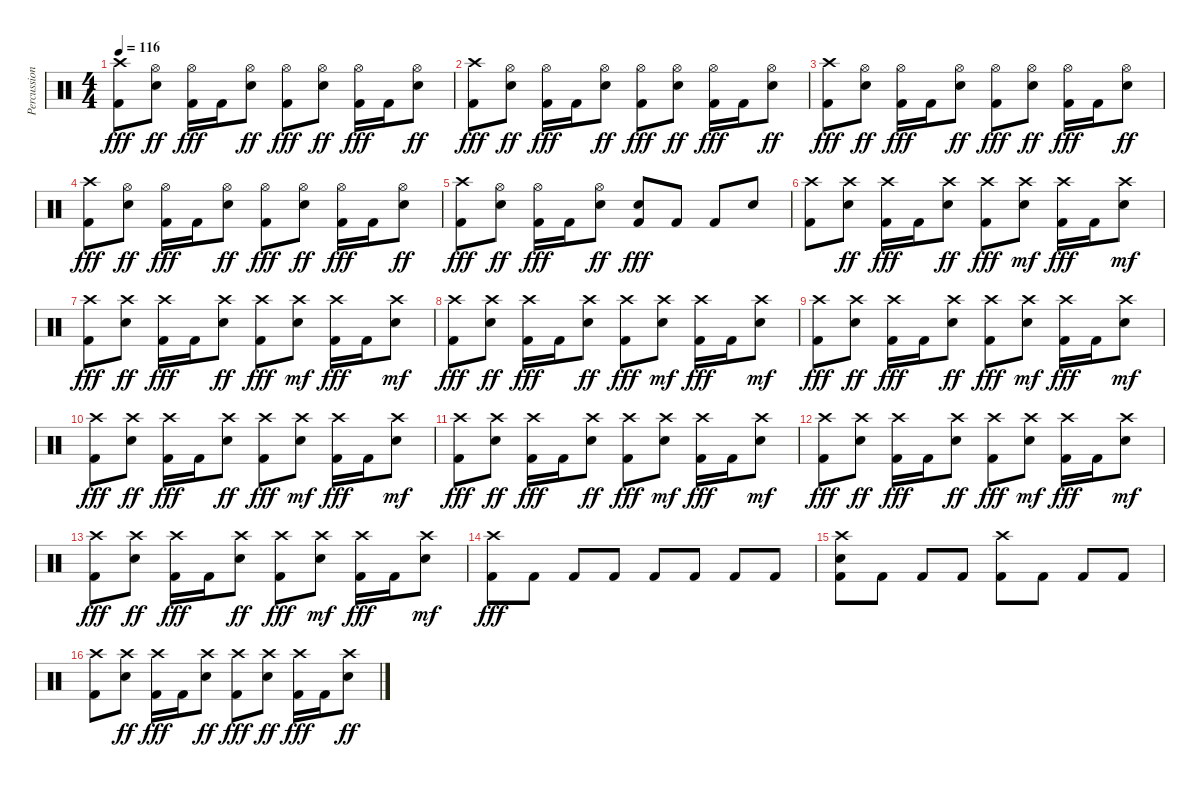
\track ("Percussioni" "Percussion") {instrument percussion}
\staff {score}
\articulation defaults
\ts (4 4)
\tempo 116
\clef neutral
\ks c
("Crash high (hit)" "Kick (hit) 2").8{dy fff} ("Hi-Hat (open)" "Snare (hit) 2").8{dy ff} ("Hi-Hat (open)" "Kick (hit) 2").16{dy fff} "Kick (hit) 2".16 ("Hi-Hat (open)" "Snare (hit) 2").8{dy ff} ("Hi-Hat (open)" "Kick (hit) 2").8{dy fff} ("Hi-Hat (open)" "Snare (hit) 2").8{dy ff} ("Hi-Hat (open)" "Kick (hit) 2").16{dy fff} "Kick (hit) 2".16 ("Hi-Hat (open)" "Snare (hit) 2").8{dy ff} |
("Crash high (hit)" "Kick (hit) 2").8{dy fff} ("Hi-Hat (open)" "Snare (hit) 2").8{dy ff} ("Hi-Hat (open)" "Kick (hit) 2").16{dy fff} "Kick (hit) 2".16 ("Hi-Hat (open)" "Snare (hit) 2").8{dy ff} ("Hi-Hat (open)" "Kick (hit) 2").8{dy fff} ("Hi-Hat (open)" "Snare (hit) 2").8{dy ff} ("Hi-Hat (open)" "Kick (hit) 2").16{dy fff} "Kick (hit) 2".16 ("Hi-Hat (open)" "Snare (hit) 2").8{dy ff} |
("Crash high (hit)" "Kick (hit) 2").8{dy fff} ("Hi-Hat (open)" "Snare (hit) 2").8{dy ff} ("Hi-Hat (open)" "Kick (hit) 2").16{dy fff} "Kick (hit) 2".16 ("Hi-Hat (open)" "Snare (hit) 2").8{dy ff} ("Hi-Hat (open)" "Kick (hit) 2").8{dy fff} ("Hi-Hat (open)" "Snare (hit) 2").8{dy ff} ("Hi-Hat (open)" "Kick (hit) 2").16{dy fff} "Kick (hit) 2".16 ("Hi-Hat (open)" "Snare (hit) 2").8{dy ff} |
("Crash high (hit)" "Kick (hit) 2").8{dy fff} ("Hi-Hat (open)" "Snare (hit) 2").8{dy ff} ("Hi-Hat (open)" "Kick (hit) 2").16{dy fff} "Kick (hit) 2".16 ("Hi-Hat (open)" "Snare (hit) 2").8{dy ff} ("Hi-Hat (open)" "Kick (hit) 2").8{dy fff} ("Hi-Hat (open)" "Snare (hit) 2").8{dy ff} ("Hi-Hat (open)" "Kick (hit) 2").16{dy fff} "Kick (hit) 2".16 ("Hi-Hat (open)" "Snare (hit) 2").8{dy ff} |
("Crash high (hit)" "Kick (hit) 2").8{dy fff} ("Hi-Hat (open)" "Snare (hit) 2").8{dy ff} ("Hi-Hat (open)" "Kick (hit) 2").16{dy fff} "Kick (hit) 2".16 ("Hi-Hat (open)" "Snare (hit) 2").8{dy ff} ("Snare (hit) 2" "Kick (hit) 2").8{dy fff} "Kick (hit) 2".8 "Kick (hit) 2".8 "Snare (hit) 2".8 |
("Crash high (hit)" "Kick (hit) 2").8 ("Crash high (hit)" "Snare (hit) 2").8{dy ff} ("Crash high (hit)" "Kick (hit) 2").16{dy fff} "Kick (hit) 2".16 ("Crash high (hit)" "Snare (hit) 2").8{dy ff} ("Crash high (hit)" "Kick (hit) 2").8{dy fff} ("Crash high (hit)" "Snare (hit) 2").8{dy mf} ("Crash high (hit)" "Kick (hit) 2").16{dy fff} "Kick (hit) 2".16 ("Crash high (hit)" "Snare (hit) 2").8{dy mf} |
("Crash high (hit)" "Kick (hit) 2").8{dy fff} ("Crash high (hit)" "Snare (hit) 2").8{dy ff} ("Crash high (hit)" "Kick (hit) 2").16{dy fff} "Kick (hit) 2".16 ("Crash high (hit)" "Snare (hit) 2").8{dy ff} ("Crash high (hit)" "Kick (hit) 2").8{dy fff} ("Crash high (hit)" "Snare (hit) 2").8{dy mf} ("Crash high (hit)" "Kick (hit) 2").16{dy fff} "Kick (hit) 2".16 ("Crash high (hit)" "Snare (hit) 2").8{dy mf} |
("Crash high (hit)" "Kick (hit) 2").8{dy fff} ("Crash high (hit)" "Snare (hit) 2").8{dy ff} ("Crash high (hit)" "Kick (hit) 2").16{dy fff} "Kick (hit) 2".16 ("Crash high (hit)" "Snare (hit) 2").8{dy ff} ("Crash high (hit)" "Kick (hit) 2").8{dy fff} ("Crash high (hit)" "Snare (hit) 2").8{dy mf} ("Crash high (hit)" "Kick (hit) 2").16{dy fff} "Kick (hit) 2".16 ("Crash high (hit)" "Snare (hit) 2").8{dy mf} |
("Crash high (hit)" "Kick (hit) 2").8{dy fff} ("Crash high (hit)" "Snare (hit) 2").8{dy ff} ("Crash high (hit)" "Kick (hit) 2").16{dy fff} "Kick (hit) 2".16 ("Crash high (hit)" "Snare (hit) 2").8{dy ff} ("Crash high (hit)" "Kick (hit) 2").8{dy fff} ("Crash high (hit)" "Snare (hit) 2").8{dy mf} ("Crash high (hit)" "Kick (hit) 2").16{dy fff} "Kick (hit) 2".16 ("Crash high (hit)" "Snare (hit) 2").8{dy mf} |
("Crash high (hit)" "Kick (hit) 2").8{dy fff} ("Crash high (hit)" "Snare (hit) 2").8{dy ff} ("Crash high (hit)" "Kick (hit) 2").16{dy fff} "Kick (hit) 2".16 ("Crash high (hit)" "Snare (hit) 2").8{dy ff} ("Crash high (hit)" "Kick (hit) 2").8{dy fff} ("Crash high (hit)" "Snare (hit) 2").8{dy mf} ("Crash high (hit)" "Kick (hit) 2").16{dy fff} "Kick (hit) 2".16 ("Crash high (hit)" "Snare (hit) 2").8{dy mf} |
("Crash high (hit)" "Kick (hit) 2").8{dy fff} ("Crash high (hit)" "Snare (hit) 2").8{dy ff} ("Crash high (hit)" "Kick (hit) 2").16{dy fff} "Kick (hit) 2".16 ("Crash high (hit)" "Snare (hit) 2").8{dy ff} ("Crash high (hit)" "Kick (hit) 2").8{dy fff} ("Crash high (hit)" "Snare (hit) 2").8{dy mf} ("Crash high (hit)" "Kick (hit) 2").16{dy fff} "Kick (hit) 2".16 ("Crash high (hit)" "Snare (hit) 2").8{dy mf} |
("Crash high (hit)" "Kick (hit) 2").8{dy fff} ("Crash high (hit)" "Snare (hit) 2").8{dy ff} ("Crash high (hit)" "Kick (hit) 2").16{dy fff} "Kick (hit) 2".16 ("Crash high (hit)" "Snare (hit) 2").8{dy ff} ("Crash high (hit)" "Kick (hit) 2").8{dy fff} ("Crash high (hit)" "Snare (hit) 2").8{dy mf} ("Crash high (hit)" "Kick (hit) 2").16{dy fff} "Kick (hit) 2".16 ("Crash high (hit)" "Snare (hit) 2").8{dy mf} |
("Crash high (hit)" "Kick (hit) 2").8{dy fff} ("Crash high (hit)" "Snare (hit) 2").8{dy ff} ("Crash high (hit)" "Kick (hit) 2").16{dy fff} "Kick (hit) 2".16 ("Crash high (hit)" "Snare (hit) 2").8{dy ff} ("Crash high (hit)" "Kick (hit) 2").8{dy fff} ("Crash high (hit)" "Snare (hit) 2").8{dy mf} ("Crash high (hit)" "Kick (hit) 2").16{dy fff} "Kick (hit) 2".16 ("Crash high (hit)" "Snare (hit) 2").8{dy mf} |
("Kick (hit) 2" "Crash high (hit)").8{dy fff} "Kick (hit) 2".8 "Kick (hit) 2".8 "Kick (hit) 2".8 "Kick (hit) 2".8 "Kick (hit) 2".8 "Kick (hit) 2".8 "Kick (hit) 2".8 |
("Kick (hit) 2" "Snare (hit) 2" "Crash high (hit)").8 "Kick (hit) 2".8 "Kick (hit) 2".8 "Kick (hit) 2".8 ("Kick (hit) 2" "Crash high (hit)").8 "Kick (hit) 2".8 "Kick (hit) 2".8 "Kick (hit) 2".8 |
("Crash high (hit)" "Kick (hit) 2").8 ("Crash high (hit)" "Snare (hit) 2").8{dy ff} ("Crash high (hit)" "Kick (hit) 2").16{dy fff} "Kick (hit) 2".16 ("Crash high (hit)" "Snare (hit) 2").8{dy ff} ("Crash high (hit)" "Kick (hit) 2").8{dy fff} ("Crash high (hit)" "Snare (hit) 2").8{dy ff} ("Crash high (hit)" "Kick (hit) 2").16{dy fff} "Kick (hit) 2".16 ("Crash high (hit)" "Snare (hit) 2").8{dy ff}
